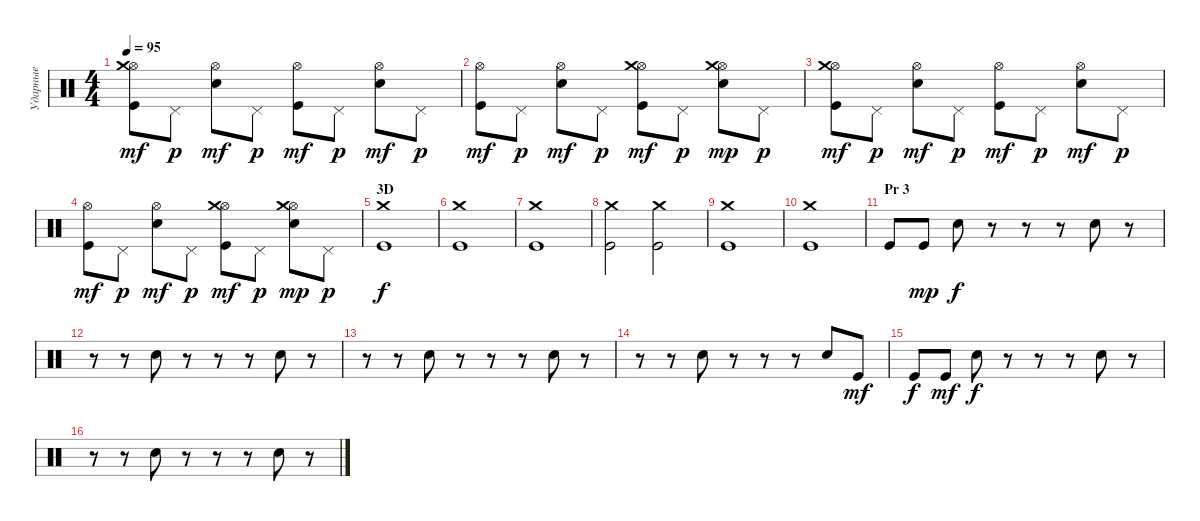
\track ("Ударные" "Ударные") {instrument percussion}
\staff {score}
\articulation defaults
\ts (4 4)
\tempo 95
\clef neutral
\ks c
("Hi-Hat (open)" "Crash medium (hit)" "Kick (hit)").8{dy mf} "Pedal Hi-Hat (hit)".8{dy p} ("Hi-Hat (open)" "Snare (hit) 2").8{dy mf} "Pedal Hi-Hat (hit)".8{dy p} ("Hi-Hat (open)" "Kick (hit)").8{dy mf} "Pedal Hi-Hat (hit)".8{dy p} ("Hi-Hat (open)" "Snare (hit) 2").8{dy mf} "Pedal Hi-Hat (hit)".8{dy p} |
("Hi-Hat (open)" "Kick (hit)").8{dy mf} "Pedal Hi-Hat (hit)".8{dy p} ("Hi-Hat (open)" "Snare (hit) 2").8{dy mf} "Pedal Hi-Hat (hit)".8{dy p} ("Hi-Hat (open)" "Crash medium (hit)" "Kick (hit)").8{dy mf} "Pedal Hi-Hat (hit)".8{dy p} ("Hi-Hat (open)" "Crash medium (hit)" "Snare (hit) 2").8{dy mp} "Pedal Hi-Hat (hit)".8{dy p} |
("Hi-Hat (open)" "Crash medium (hit)" "Kick (hit)").8{dy mf} "Pedal Hi-Hat (hit)".8{dy p} ("Hi-Hat (open)" "Snare (hit) 2").8{dy mf} "Pedal Hi-Hat (hit)".8{dy p} ("Hi-Hat (open)" "Kick (hit)").8{dy mf} "Pedal Hi-Hat (hit)".8{dy p} ("Hi-Hat (open)" "Snare (hit) 2").8{dy mf} "Pedal Hi-Hat (hit)".8{dy p} |
("Hi-Hat (open)" "Kick (hit)").8{dy mf} "Pedal Hi-Hat (hit)".8{dy p} ("Hi-Hat (open)" "Snare (hit) 2").8{dy mf} "Pedal Hi-Hat (hit)".8{dy p} ("Hi-Hat (open)" "Crash medium (hit)" "Kick (hit)").8{dy mf} "Pedal Hi-Hat (hit)".8{dy p} ("Hi-Hat (open)" "Crash medium (hit)" "Snare (hit) 2").8{dy mp} "Pedal Hi-Hat (hit)".8{dy p} |
\section ("" "3D")
("Crash medium (hit)" "Kick (hit)").1{dy f} |
("Crash medium (hit)" "Kick (hit)").1 |
("Crash medium (hit)" "Kick (hit)").1 |
("Crash medium (hit)" "Kick (hit)").2 ("Crash medium (hit)" "Kick (hit)").2 |
("Crash medium (hit)" "Kick (hit)").1 |
("Crash medium (hit)" "Kick (hit)").1 |
\section ("" "Pr 3")
"Kick (hit)".8 "Kick (hit)".8{dy mp} "Snare (hit) 2".8{dy f} r.8 r.8 r.8 "Snare (hit) 2".8 r.8 |
r.8 r.8 "Snare (hit) 2".8 r.8 r.8 r.8 "Snare (hit) 2".8 r.8 |
r.8 r.8 "Snare (hit) 2".8 r.8 r.8 r.8 "Snare (hit) 2".8 r.8 |
r.8 r.8 "Snare (hit) 2".8 r.8 r.8 r.8 "Snare (hit) 2".8 "Kick (hit)".8{dy mf} |
"Kick (hit)".8{dy f} "Kick (hit)".8{dy mf} "Snare (hit) 2".8{dy f} r.8 r.8 r.8 "Snare (hit) 2".8 r.8 |
r.8 r.8 "Snare (hit) 2".8 r.8 r.8 r.8 "Snare (hit) 2".8 r.8
